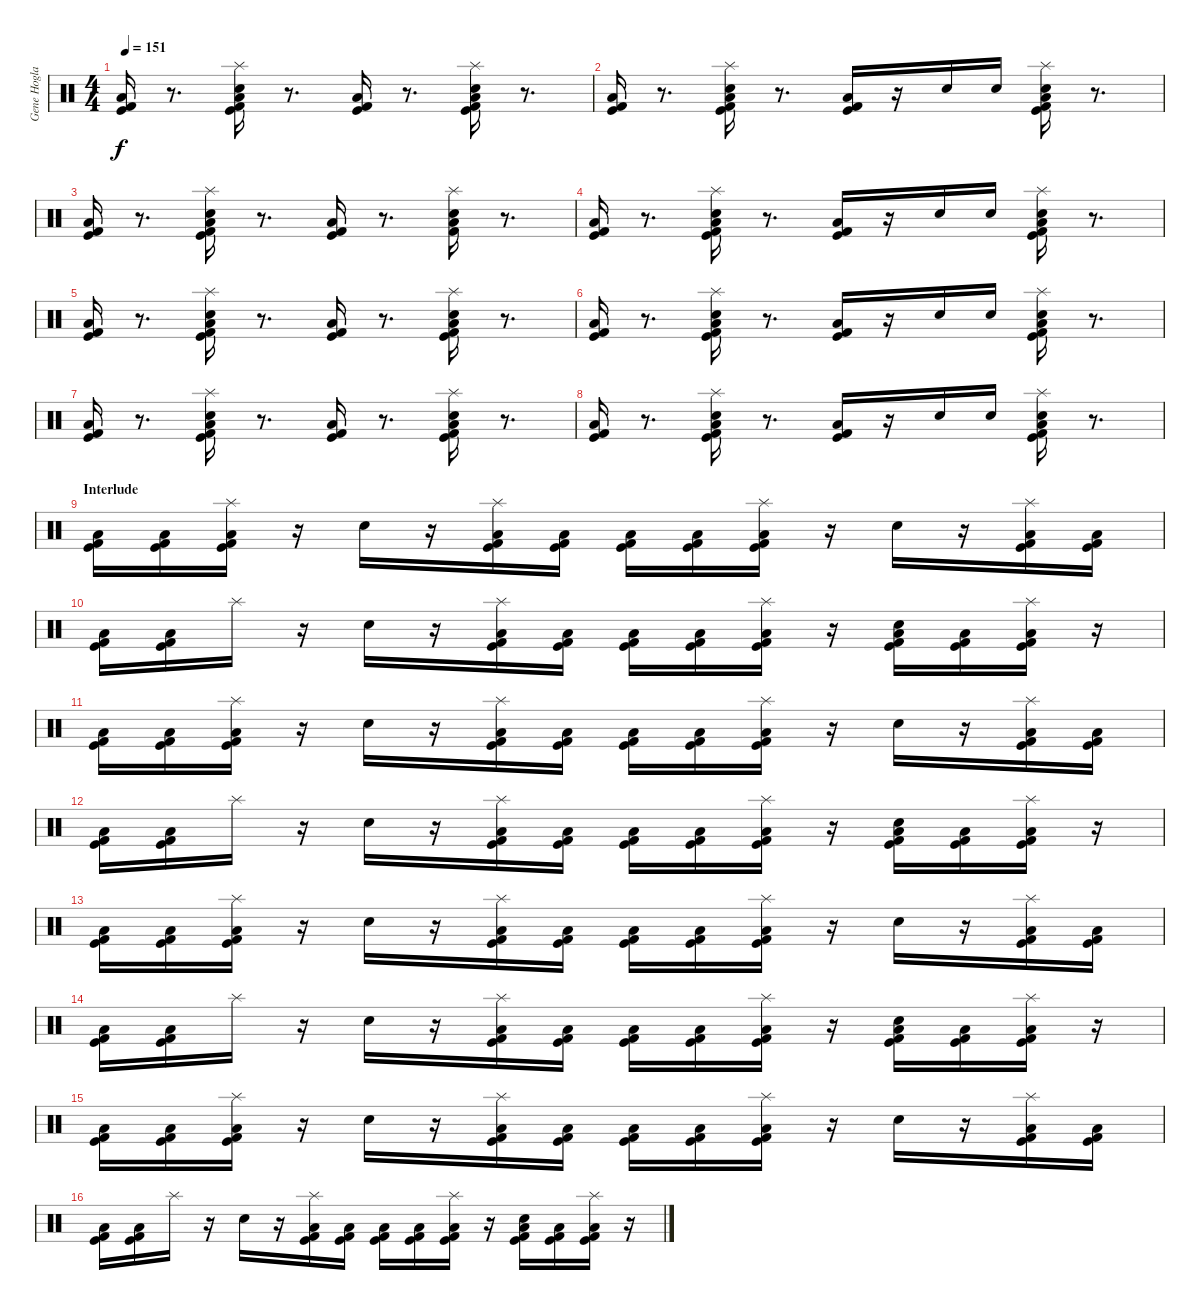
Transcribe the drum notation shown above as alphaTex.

\track ("Gene Hoglan" "Gene Hogla") {instrument percussion}
\staff {score}
\articulation defaults
\ts (4 4)
\tempo 151
\clef neutral
\ks c
("Low Floor Tom (hit)" "Kick (hit)" "Kick (hit) 2").16{dy f} r.8{d} ("Low Floor Tom (hit)" "Kick (hit)" "Splash (hit)" "Snare (hit) 2" "Kick (hit) 2").16 r.8{d} ("Low Floor Tom (hit)" "Kick (hit)" "Kick (hit) 2").16 r.8{d} ("Low Floor Tom (hit)" "Kick (hit)" "Splash (hit)" "Snare (hit) 2" "Kick (hit) 2").16 r.8{d} |
("Low Floor Tom (hit)" "Kick (hit)" "Kick (hit) 2").16 r.8{d} ("Low Floor Tom (hit)" "Kick (hit)" "Splash (hit)" "Snare (hit) 2" "Kick (hit) 2").16 r.8{d} ("Low Floor Tom (hit)" "Kick (hit)" "Kick (hit) 2").16 r.16 "Snare (hit) 2".16 "Snare (hit) 2".16 ("Low Floor Tom (hit)" "Kick (hit)" "Splash (hit)" "Snare (hit) 2" "Kick (hit) 2").16 r.8{d} |
("Low Floor Tom (hit)" "Kick (hit)" "Kick (hit) 2").16 r.8{d} ("Low Floor Tom (hit)" "Kick (hit)" "Splash (hit)" "Snare (hit) 2" "Kick (hit) 2").16 r.8{d} ("Low Floor Tom (hit)" "Kick (hit)" "Kick (hit) 2").16 r.8{d} ("Low Floor Tom (hit)" "Splash (hit)" "Snare (hit) 2" "Kick (hit) 2").16 r.8{d} |
("Kick (hit)" "Low Floor Tom (hit)" "Kick (hit) 2").16 r.8{d} ("Low Floor Tom (hit)" "Kick (hit)" "Snare (hit) 2" "Splash (hit)" "Kick (hit) 2").16 r.8{d} ("Low Floor Tom (hit)" "Kick (hit)" "Kick (hit) 2").16 r.16 "Snare (hit) 2".16 "Snare (hit) 2".16 ("Low Floor Tom (hit)" "Kick (hit)" "Snare (hit) 2" "Splash (hit)" "Kick (hit) 2").16 r.8{d} |
("Low Floor Tom (hit)" "Kick (hit)" "Kick (hit) 2").16 r.8{d} ("Low Floor Tom (hit)" "Kick (hit)" "Splash (hit)" "Snare (hit) 2" "Kick (hit) 2").16 r.8{d} ("Low Floor Tom (hit)" "Kick (hit)" "Kick (hit) 2").16 r.8{d} ("Low Floor Tom (hit)" "Kick (hit)" "Splash (hit)" "Snare (hit) 2" "Kick (hit) 2").16 r.8{d} |
("Low Floor Tom (hit)" "Kick (hit)" "Kick (hit) 2").16 r.8{d} ("Low Floor Tom (hit)" "Kick (hit)" "Splash (hit)" "Snare (hit) 2" "Kick (hit) 2").16 r.8{d} ("Low Floor Tom (hit)" "Kick (hit)" "Kick (hit) 2").16 r.16 "Snare (hit) 2".16 "Snare (hit) 2".16 ("Low Floor Tom (hit)" "Kick (hit)" "Splash (hit)" "Snare (hit) 2" "Kick (hit) 2").16 r.8{d} |
("Low Floor Tom (hit)" "Kick (hit)" "Kick (hit) 2").16 r.8{d} ("Kick (hit)" "Low Floor Tom (hit)" "Splash (hit)" "Snare (hit) 2" "Kick (hit) 2").16 r.8{d} ("Kick (hit)" "Low Floor Tom (hit)" "Kick (hit) 2").16 r.8{d} ("Kick (hit)" "Low Floor Tom (hit)" "Splash (hit)" "Snare (hit) 2" "Kick (hit) 2").16 r.8{d} |
("Low Floor Tom (hit)" "Kick (hit)" "Kick (hit) 2").16 r.8{d} ("Kick (hit)" "Low Floor Tom (hit)" "Splash (hit)" "Snare (hit) 2" "Kick (hit) 2").16 r.8{d} ("Low Floor Tom (hit)" "Kick (hit)" "Kick (hit) 2").16 r.16 "Snare (hit) 2".16 "Snare (hit) 2".16 ("Low Floor Tom (hit)" "Kick (hit)" "Splash (hit)" "Snare (hit) 2" "Kick (hit) 2").16 r.8{d} |
\section ("" "Interlude")
("Low Floor Tom (hit)" "Kick (hit) 2" "Kick (hit)").16 ("Kick (hit) 2" "Low Floor Tom (hit)" "Kick (hit)").16 ("Kick (hit) 2" "Low Floor Tom (hit)" "Splash (hit)" "Kick (hit)").16 r.16 "Snare (hit) 2".16 r.16 ("Low Floor Tom (hit)" "Kick (hit) 2" "Splash (hit)" "Kick (hit)").16 ("Low Floor Tom (hit)" "Kick (hit) 2" "Kick (hit)").16 ("Low Floor Tom (hit)" "Kick (hit) 2" "Kick (hit)").16 ("Low Floor Tom (hit)" "Kick (hit) 2" "Kick (hit)").16 ("Low Floor Tom (hit)" "Kick (hit) 2" "Splash (hit)" "Kick (hit)").16 r.16 "Snare (hit) 2".16 r.16 ("Low Floor Tom (hit)" "Kick (hit) 2" "Splash (hit)" "Kick (hit)").16 ("Low Floor Tom (hit)" "Kick (hit) 2" "Kick (hit)").16 |
("Low Floor Tom (hit)" "Kick (hit) 2" "Kick (hit)").16 ("Low Floor Tom (hit)" "Kick (hit) 2" "Kick (hit)").16 "Splash (hit)".16 r.16 "Snare (hit) 2".16 r.16 ("Splash (hit)" "Low Floor Tom (hit)" "Kick (hit) 2" "Kick (hit)").16 ("Low Floor Tom (hit)" "Kick (hit) 2" "Kick (hit)").16 ("Low Floor Tom (hit)" "Kick (hit) 2" "Kick (hit)").16 ("Low Floor Tom (hit)" "Kick (hit) 2" "Kick (hit)").16 ("Splash (hit)" "Low Floor Tom (hit)" "Kick (hit) 2" "Kick (hit)").16 r.16 ("Kick (hit) 2" "Low Floor Tom (hit)" "Kick (hit)" "Snare (hit) 2").16 ("Kick (hit) 2" "Low Floor Tom (hit)" "Kick (hit)").16 ("Splash (hit)" "Kick (hit) 2" "Low Floor Tom (hit)" "Kick (hit)").16 r.16 |
("Low Floor Tom (hit)" "Kick (hit) 2" "Kick (hit)").16 ("Kick (hit) 2" "Low Floor Tom (hit)" "Kick (hit)").16 ("Kick (hit) 2" "Low Floor Tom (hit)" "Splash (hit)" "Kick (hit)").16 r.16 "Snare (hit) 2".16 r.16 ("Low Floor Tom (hit)" "Kick (hit) 2" "Splash (hit)" "Kick (hit)").16 ("Low Floor Tom (hit)" "Kick (hit) 2" "Kick (hit)").16 ("Low Floor Tom (hit)" "Kick (hit) 2" "Kick (hit)").16 ("Low Floor Tom (hit)" "Kick (hit) 2" "Kick (hit)").16 ("Low Floor Tom (hit)" "Kick (hit) 2" "Splash (hit)" "Kick (hit)").16 r.16 "Snare (hit) 2".16 r.16 ("Low Floor Tom (hit)" "Kick (hit) 2" "Splash (hit)" "Kick (hit)").16 ("Low Floor Tom (hit)" "Kick (hit) 2" "Kick (hit)").16 |
("Low Floor Tom (hit)" "Kick (hit) 2" "Kick (hit)").16 ("Low Floor Tom (hit)" "Kick (hit) 2" "Kick (hit)").16 "Splash (hit)".16 r.16 "Snare (hit) 2".16 r.16 ("Splash (hit)" "Low Floor Tom (hit)" "Kick (hit) 2" "Kick (hit)").16 ("Low Floor Tom (hit)" "Kick (hit) 2" "Kick (hit)").16 ("Low Floor Tom (hit)" "Kick (hit) 2" "Kick (hit)").16 ("Low Floor Tom (hit)" "Kick (hit) 2" "Kick (hit)").16 ("Splash (hit)" "Low Floor Tom (hit)" "Kick (hit) 2" "Kick (hit)").16 r.16 ("Kick (hit) 2" "Low Floor Tom (hit)" "Kick (hit)" "Snare (hit) 2").16 ("Kick (hit) 2" "Low Floor Tom (hit)" "Kick (hit)").16 ("Splash (hit)" "Kick (hit) 2" "Low Floor Tom (hit)" "Kick (hit)").16 r.16 |
("Low Floor Tom (hit)" "Kick (hit) 2" "Kick (hit)").16 ("Kick (hit) 2" "Low Floor Tom (hit)" "Kick (hit)").16 ("Kick (hit) 2" "Low Floor Tom (hit)" "Splash (hit)" "Kick (hit)").16 r.16 "Snare (hit) 2".16 r.16 ("Low Floor Tom (hit)" "Kick (hit) 2" "Splash (hit)" "Kick (hit)").16 ("Low Floor Tom (hit)" "Kick (hit) 2" "Kick (hit)").16 ("Low Floor Tom (hit)" "Kick (hit) 2" "Kick (hit)").16 ("Low Floor Tom (hit)" "Kick (hit) 2" "Kick (hit)").16 ("Low Floor Tom (hit)" "Kick (hit) 2" "Splash (hit)" "Kick (hit)").16 r.16 "Snare (hit) 2".16 r.16 ("Low Floor Tom (hit)" "Kick (hit) 2" "Splash (hit)" "Kick (hit)").16 ("Low Floor Tom (hit)" "Kick (hit) 2" "Kick (hit)").16 |
("Low Floor Tom (hit)" "Kick (hit) 2" "Kick (hit)").16 ("Low Floor Tom (hit)" "Kick (hit) 2" "Kick (hit)").16 "Splash (hit)".16 r.16 "Snare (hit) 2".16 r.16 ("Splash (hit)" "Low Floor Tom (hit)" "Kick (hit) 2" "Kick (hit)").16 ("Low Floor Tom (hit)" "Kick (hit) 2" "Kick (hit)").16 ("Low Floor Tom (hit)" "Kick (hit) 2" "Kick (hit)").16 ("Low Floor Tom (hit)" "Kick (hit) 2" "Kick (hit)").16 ("Splash (hit)" "Low Floor Tom (hit)" "Kick (hit) 2" "Kick (hit)").16 r.16 ("Kick (hit) 2" "Low Floor Tom (hit)" "Kick (hit)" "Snare (hit) 2").16 ("Kick (hit) 2" "Low Floor Tom (hit)" "Kick (hit)").16 ("Splash (hit)" "Kick (hit) 2" "Low Floor Tom (hit)" "Kick (hit)").16 r.16 |
("Low Floor Tom (hit)" "Kick (hit) 2" "Kick (hit)").16 ("Kick (hit) 2" "Low Floor Tom (hit)" "Kick (hit)").16 ("Kick (hit) 2" "Low Floor Tom (hit)" "Splash (hit)" "Kick (hit)").16 r.16 "Snare (hit) 2".16 r.16 ("Low Floor Tom (hit)" "Kick (hit) 2" "Splash (hit)" "Kick (hit)").16 ("Low Floor Tom (hit)" "Kick (hit) 2" "Kick (hit)").16 ("Low Floor Tom (hit)" "Kick (hit) 2" "Kick (hit)").16 ("Low Floor Tom (hit)" "Kick (hit) 2" "Kick (hit)").16 ("Low Floor Tom (hit)" "Kick (hit) 2" "Splash (hit)" "Kick (hit)").16 r.16 "Snare (hit) 2".16 r.16 ("Low Floor Tom (hit)" "Kick (hit) 2" "Splash (hit)" "Kick (hit)").16 ("Low Floor Tom (hit)" "Kick (hit) 2" "Kick (hit)").16 |
("Low Floor Tom (hit)" "Kick (hit) 2" "Kick (hit)").16 ("Low Floor Tom (hit)" "Kick (hit) 2" "Kick (hit)").16 "Splash (hit)".16 r.16 "Snare (hit) 2".16 r.16 ("Splash (hit)" "Low Floor Tom (hit)" "Kick (hit) 2" "Kick (hit)").16 ("Low Floor Tom (hit)" "Kick (hit) 2" "Kick (hit)").16 ("Low Floor Tom (hit)" "Kick (hit) 2" "Kick (hit)").16 ("Low Floor Tom (hit)" "Kick (hit) 2" "Kick (hit)").16 ("Splash (hit)" "Low Floor Tom (hit)" "Kick (hit) 2" "Kick (hit)").16 r.16 ("Kick (hit) 2" "Low Floor Tom (hit)" "Kick (hit)" "Snare (hit) 2").16 ("Kick (hit) 2" "Low Floor Tom (hit)" "Kick (hit)").16 ("Splash (hit)" "Kick (hit) 2" "Low Floor Tom (hit)" "Kick (hit)").16 r.16
